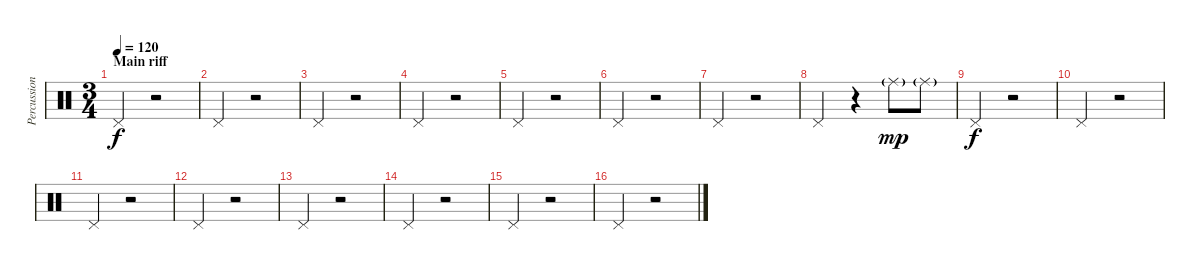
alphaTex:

\track ("Percussion" "Percussion") {instrument percussion}
\staff {score}
\articulation defaults
\ts (3 4)
\section ("" "Main riff")
\tempo 120
\clef neutral
\ks c "Pedal Hi-Hat (hit)".4{dy f}
r.2 |
"Pedal Hi-Hat (hit)".4 r.2 |
"Pedal Hi-Hat (hit)".4 r.2 |
"Pedal Hi-Hat (hit)".4 r.2 |
"Pedal Hi-Hat (hit)".4 r.2 |
"Pedal Hi-Hat (hit)".4 r.2 |
"Pedal Hi-Hat (hit)".4 r.2 |
"Pedal Hi-Hat (hit)".4 r.4 "Ride (middle)"{g}.8{dy mp} "Ride (middle)"{g}.8 |
"Pedal Hi-Hat (hit)".4{dy f} r.2 |
"Pedal Hi-Hat (hit)".4 r.2 |
"Pedal Hi-Hat (hit)".4 r.2 |
"Pedal Hi-Hat (hit)".4 r.2 |
"Pedal Hi-Hat (hit)".4 r.2 |
"Pedal Hi-Hat (hit)".4 r.2 |
"Pedal Hi-Hat (hit)".4 r.2 |
"Pedal Hi-Hat (hit)".4 r.2
